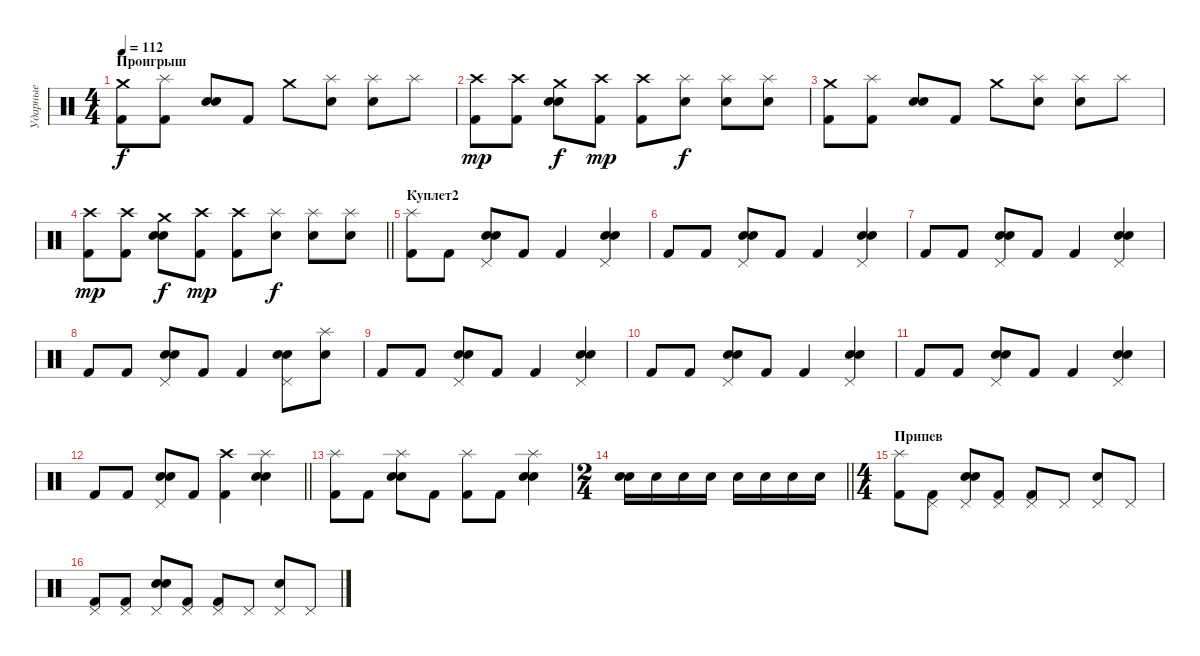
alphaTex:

\track ("Ударные" "Ударные") {instrument percussion}
\staff {score}
\articulation defaults
\ts (4 4)
\section ("" "Проигрыш")
\tempo 112
\clef neutral
\ks c
("Crash medium (hit)" "Kick (hit) 2").8{dy f} ("Splash (hit)" "Kick (hit) 2").8 ("Electric Snare (hit)" "Snare (hit) 2").8 "Kick (hit) 2".8 "Crash medium (hit)".8 ("Splash (hit)" "Electric Snare (hit)").8 ("Splash (hit)" "Electric Snare (hit)").8 "Splash (hit)".8 |
("Crash high (hit)" "Kick (hit) 2").8{dy mp} ("Crash high (hit)" "Kick (hit) 2").8 ("Crash medium (hit)" "Electric Snare (hit)" "Snare (hit) 2").8{dy f} ("Crash high (hit)" "Kick (hit) 2").8{dy mp} ("Crash high (hit)" "Kick (hit) 2").8 ("Splash (hit)" "Electric Snare (hit)").8{dy f} ("Splash (hit)" "Electric Snare (hit)").8 ("Splash (hit)" "Electric Snare (hit)").8 |
("Crash medium (hit)" "Kick (hit) 2").8 ("Splash (hit)" "Kick (hit) 2").8 ("Electric Snare (hit)" "Snare (hit) 2").8 "Kick (hit) 2".8 "Crash medium (hit)".8 ("Splash (hit)" "Electric Snare (hit)").8 ("Splash (hit)" "Electric Snare (hit)").8 "Splash (hit)".8 |
\barLineRight lightlight
("Crash high (hit)" "Kick (hit) 2").8{dy mp} ("Crash high (hit)" "Kick (hit) 2").8 ("Crash medium (hit)" "Electric Snare (hit)" "Snare (hit) 2").8{dy f} ("Crash high (hit)" "Kick (hit) 2").8{dy mp} ("Crash high (hit)" "Kick (hit) 2").8 ("Splash (hit)" "Electric Snare (hit)").8{dy f} ("Splash (hit)" "Electric Snare (hit)").8 ("Splash (hit)" "Electric Snare (hit)").8 |
\section ("" "Куплет2")
("Splash (hit)" "Kick (hit) 2").8 "Kick (hit) 2".8 ("Pedal Hi-Hat (hit)" "Electric Snare (hit)" "Snare (hit) 2").8 "Kick (hit) 2".8 "Kick (hit) 2".4 ("Pedal Hi-Hat (hit)" "Electric Snare (hit)" "Snare (hit) 2").4 |
"Kick (hit) 2".8 "Kick (hit) 2".8 ("Pedal Hi-Hat (hit)" "Electric Snare (hit)" "Snare (hit) 2").8 "Kick (hit) 2".8 "Kick (hit) 2".4 ("Pedal Hi-Hat (hit)" "Electric Snare (hit)" "Snare (hit) 2").4 |
"Kick (hit) 2".8 "Kick (hit) 2".8 ("Pedal Hi-Hat (hit)" "Electric Snare (hit)" "Snare (hit) 2").8 "Kick (hit) 2".8 "Kick (hit) 2".4 ("Pedal Hi-Hat (hit)" "Electric Snare (hit)" "Snare (hit) 2").4 |
"Kick (hit) 2".8 "Kick (hit) 2".8 ("Pedal Hi-Hat (hit)" "Electric Snare (hit)" "Snare (hit) 2").8 "Kick (hit) 2".8 "Kick (hit) 2".4 ("Pedal Hi-Hat (hit)" "Electric Snare (hit)" "Snare (hit) 2").8 ("Splash (hit)" "Electric Snare (hit)").8 |
"Kick (hit) 2".8 "Kick (hit) 2".8 ("Pedal Hi-Hat (hit)" "Electric Snare (hit)" "Snare (hit) 2").8 "Kick (hit) 2".8 "Kick (hit) 2".4 ("Pedal Hi-Hat (hit)" "Electric Snare (hit)" "Snare (hit) 2").4 |
"Kick (hit) 2".8 "Kick (hit) 2".8 ("Pedal Hi-Hat (hit)" "Electric Snare (hit)" "Snare (hit) 2").8 "Kick (hit) 2".8 "Kick (hit) 2".4 ("Pedal Hi-Hat (hit)" "Electric Snare (hit)" "Snare (hit) 2").4 |
"Kick (hit) 2".8 "Kick (hit) 2".8 ("Pedal Hi-Hat (hit)" "Electric Snare (hit)" "Snare (hit) 2").8 "Kick (hit) 2".8 "Kick (hit) 2".4 ("Pedal Hi-Hat (hit)" "Electric Snare (hit)" "Snare (hit) 2").4 |
\barLineRight lightlight "Kick (hit) 2".8 "Kick (hit) 2".8
("Pedal Hi-Hat (hit)" "Electric Snare (hit)" "Snare (hit) 2").8 "Kick (hit) 2".8 ("Crash high (hit)" "Kick (hit) 2").4 ("Splash (hit)" "Electric Snare (hit)" "Snare (hit) 2").4 |
("Splash (hit)" "Kick (hit) 2").8 "Kick (hit) 2".8 ("Splash (hit)" "Electric Snare (hit)" "Snare (hit) 2").8 "Kick (hit) 2".8 ("Splash (hit)" "Kick (hit) 2").8 "Kick (hit) 2".8 ("Splash (hit)" "Electric Snare (hit)" "Snare (hit) 2").4 |
\ts (2 4)
\barLineRight lightlight
("Electric Snare (hit)" "Snare (hit) 2").16 "Electric Snare (hit)".16 "Electric Snare (hit)".16 "Electric Snare (hit)".16 "Electric Snare (hit)".16 "Electric Snare (hit)".16 "Electric Snare (hit)".16 "Electric Snare (hit)".16 |
\ts (4 4)
\section ("" "Припев")
("Splash (hit)" "Kick (hit) 2").8 ("Pedal Hi-Hat (hit)" "Kick (hit) 2").8 ("Pedal Hi-Hat (hit)" "Electric Snare (hit)" "Snare (hit) 2").8 ("Pedal Hi-Hat (hit)" "Kick (hit) 2").8 ("Pedal Hi-Hat (hit)" "Kick (hit) 2").8 "Pedal Hi-Hat (hit)".8 ("Pedal Hi-Hat (hit)" "Electric Snare (hit)").8 "Pedal Hi-Hat (hit)".8 |
("Pedal Hi-Hat (hit)" "Kick (hit) 2").8 ("Pedal Hi-Hat (hit)" "Kick (hit) 2").8 ("Pedal Hi-Hat (hit)" "Electric Snare (hit)" "Snare (hit) 2").8 ("Pedal Hi-Hat (hit)" "Kick (hit) 2").8 ("Pedal Hi-Hat (hit)" "Kick (hit) 2").8 "Pedal Hi-Hat (hit)".8 ("Pedal Hi-Hat (hit)" "Electric Snare (hit)").8 "Pedal Hi-Hat (hit)".8
